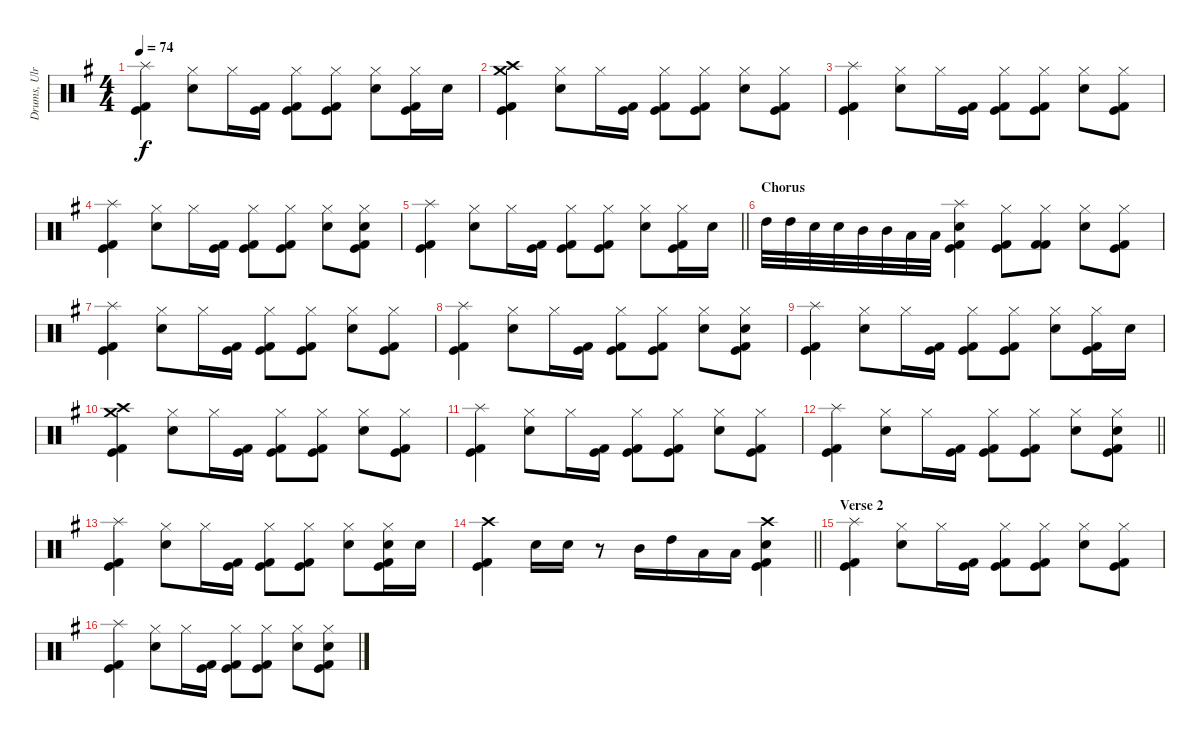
\track ("Drums, Ulrich" "Drums, Ulr") {instrument percussion}
\staff {score}
\articulation defaults
\ts (4 4)
\tempo 74
\clef neutral
\ks g
("Splash (hit)" "Kick (hit) 2" "Kick (hit)").4{dy f} ("Hi-Hat (closed)" "Electric Snare (hit)").8 "Hi-Hat (closed)".16 ("Kick (hit) 2" "Kick (hit)").16 ("Hi-Hat (closed)" "Kick (hit) 2" "Kick (hit)").8 ("Hi-Hat (closed)" "Kick (hit)" "Kick (hit) 2").8 ("Hi-Hat (closed)" "Electric Snare (hit)").8 ("Hi-Hat (closed)" "Kick (hit) 2" "Kick (hit)").16 "Electric Snare (hit)".16 |
("Crash medium (hit)" "Crash high (hit)" "Kick (hit) 2" "Kick (hit)").4 ("Hi-Hat (closed)" "Electric Snare (hit)").8 "Hi-Hat (closed)".16 ("Kick (hit) 2" "Kick (hit)").16 ("Hi-Hat (closed)" "Kick (hit) 2" "Kick (hit)").8 ("Hi-Hat (closed)" "Kick (hit)" "Kick (hit) 2").8 ("Hi-Hat (closed)" "Electric Snare (hit)").8 ("Hi-Hat (closed)" "Kick (hit) 2" "Kick (hit)").8 |
("Splash (hit)" "Kick (hit) 2" "Kick (hit)").4 ("Hi-Hat (closed)" "Electric Snare (hit)").8 "Hi-Hat (closed)".16 ("Kick (hit) 2" "Kick (hit)").16 ("Hi-Hat (closed)" "Kick (hit) 2" "Kick (hit)").8 ("Hi-Hat (closed)" "Kick (hit)" "Kick (hit) 2").8 ("Hi-Hat (closed)" "Electric Snare (hit)").8 ("Hi-Hat (closed)" "Kick (hit) 2" "Kick (hit)").8 |
("Splash (hit)" "Kick (hit) 2" "Kick (hit)").4 ("Hi-Hat (closed)" "Electric Snare (hit)").8 "Hi-Hat (closed)".16 ("Kick (hit) 2" "Kick (hit)").16 ("Hi-Hat (closed)" "Kick (hit) 2" "Kick (hit)").8 ("Hi-Hat (closed)" "Kick (hit)" "Kick (hit) 2").8 ("Hi-Hat (closed)" "Electric Snare (hit)").8 ("Hi-Hat (closed)" "Electric Snare (hit)" "Kick (hit) 2" "Kick (hit)").8 |
\barLineRight lightlight
("Splash (hit)" "Kick (hit) 2" "Kick (hit)").4 ("Hi-Hat (closed)" "Electric Snare (hit)").8 "Hi-Hat (closed)".16 ("Kick (hit) 2" "Kick (hit)").16 ("Hi-Hat (closed)" "Kick (hit) 2" "Kick (hit)").8 ("Hi-Hat (closed)" "Kick (hit)" "Kick (hit) 2").8 ("Hi-Hat (closed)" "Electric Snare (hit)").8 ("Hi-Hat (closed)" "Kick (hit) 2" "Kick (hit)").16 "Electric Snare (hit)".16 |
\section ("" "Chorus")
"High Tom (hit)".32 "High Tom (hit)".32 "Electric Snare (hit)".32 "Electric Snare (hit)".32 "Mid Tom (hit)".32 "Mid Tom (hit)".32 "Low Floor Tom (hit)".32 "Low Floor Tom (hit)".32 ("Splash (hit)" "Electric Snare (hit)" "Kick (hit) 2" "Kick (hit)").4 ("Hi-Hat (closed)" "Kick (hit) 2" "Kick (hit)").8 ("Hi-Hat (closed)" "Kick (hit) 2" "Kick (hit) 2").8 ("Hi-Hat (closed)" "Electric Snare (hit)").8 ("Hi-Hat (closed)" "Kick (hit) 2" "Kick (hit)").8 |
("Splash (hit)" "Kick (hit) 2" "Kick (hit)").4 ("Hi-Hat (closed)" "Electric Snare (hit)").8 "Hi-Hat (closed)".16 ("Kick (hit) 2" "Kick (hit)").16 ("Hi-Hat (closed)" "Kick (hit) 2" "Kick (hit)").8 ("Hi-Hat (closed)" "Kick (hit)" "Kick (hit) 2").8 ("Hi-Hat (closed)" "Electric Snare (hit)").8 ("Hi-Hat (closed)" "Kick (hit) 2" "Kick (hit)").8 |
("Splash (hit)" "Kick (hit) 2" "Kick (hit)").4 ("Hi-Hat (closed)" "Electric Snare (hit)").8 "Hi-Hat (closed)".16 ("Kick (hit) 2" "Kick (hit)").16 ("Hi-Hat (closed)" "Kick (hit) 2" "Kick (hit)").8 ("Hi-Hat (closed)" "Kick (hit)" "Kick (hit) 2").8 ("Hi-Hat (closed)" "Electric Snare (hit)").8 ("Hi-Hat (closed)" "Electric Snare (hit)" "Kick (hit) 2" "Kick (hit)").8 |
("Splash (hit)" "Kick (hit) 2" "Kick (hit)").4 ("Hi-Hat (closed)" "Electric Snare (hit)").8 "Hi-Hat (closed)".16 ("Kick (hit) 2" "Kick (hit)").16 ("Hi-Hat (closed)" "Kick (hit) 2" "Kick (hit)").8 ("Hi-Hat (closed)" "Kick (hit)" "Kick (hit) 2").8 ("Hi-Hat (closed)" "Electric Snare (hit)").8 ("Hi-Hat (closed)" "Kick (hit) 2" "Kick (hit)").16 "Electric Snare (hit)".16 |
("Crash medium (hit)" "Crash high (hit)" "Kick (hit) 2" "Kick (hit)").4 ("Hi-Hat (closed)" "Electric Snare (hit)").8 "Hi-Hat (closed)".16 ("Kick (hit) 2" "Kick (hit)").16 ("Hi-Hat (closed)" "Kick (hit) 2" "Kick (hit)").8 ("Hi-Hat (closed)" "Kick (hit)" "Kick (hit) 2").8 ("Hi-Hat (closed)" "Electric Snare (hit)").8 ("Hi-Hat (closed)" "Kick (hit) 2" "Kick (hit)").8 |
("Splash (hit)" "Kick (hit) 2" "Kick (hit)").4 ("Hi-Hat (closed)" "Electric Snare (hit)").8 "Hi-Hat (closed)".16 ("Kick (hit) 2" "Kick (hit)").16 ("Hi-Hat (closed)" "Kick (hit) 2" "Kick (hit)").8 ("Hi-Hat (closed)" "Kick (hit)" "Kick (hit) 2").8 ("Hi-Hat (closed)" "Electric Snare (hit)").8 ("Hi-Hat (closed)" "Kick (hit) 2" "Kick (hit)").8 |
\barLineRight lightlight
("Splash (hit)" "Kick (hit) 2" "Kick (hit)").4 ("Hi-Hat (closed)" "Electric Snare (hit)").8 "Hi-Hat (closed)".16 ("Kick (hit) 2" "Kick (hit)").16 ("Hi-Hat (closed)" "Kick (hit) 2" "Kick (hit)").8 ("Hi-Hat (closed)" "Kick (hit)" "Kick (hit) 2").8 ("Hi-Hat (closed)" "Electric Snare (hit)").8 ("Hi-Hat (closed)" "Electric Snare (hit)" "Kick (hit) 2" "Kick (hit)").8 |
("Splash (hit)" "Kick (hit) 2" "Kick (hit)").4 ("Hi-Hat (closed)" "Electric Snare (hit)").8 "Hi-Hat (closed)".16 ("Kick (hit) 2" "Kick (hit)").16 ("Hi-Hat (closed)" "Kick (hit) 2" "Kick (hit)").8 ("Hi-Hat (closed)" "Kick (hit)" "Kick (hit) 2").8 ("Hi-Hat (closed)" "Electric Snare (hit)").8 ("Hi-Hat (closed)" "Electric Snare (hit)" "Kick (hit) 2" "Kick (hit)").16 "Electric Snare (hit)".16 |
\barLineRight lightlight
("Crash high (hit)" "Kick (hit) 2" "Kick (hit)").4 "Electric Snare (hit)".16 "Electric Snare (hit)".16 r.8 "Mid Tom (hit)".16 "High Tom (hit)".16 "Low Floor Tom (hit)".16 "Low Floor Tom (hit)".16 ("Crash high (hit)" "Kick (hit) 2" "Kick (hit)" "Electric Snare (hit)").4 |
\section ("" "Verse 2")
("Splash (hit)" "Kick (hit) 2" "Kick (hit)").4 ("Hi-Hat (closed)" "Electric Snare (hit)").8 "Hi-Hat (closed)".16 ("Kick (hit) 2" "Kick (hit)").16 ("Hi-Hat (closed)" "Kick (hit) 2" "Kick (hit)").8 ("Hi-Hat (closed)" "Kick (hit)" "Kick (hit) 2").8 ("Hi-Hat (closed)" "Electric Snare (hit)").8 ("Hi-Hat (closed)" "Kick (hit) 2" "Kick (hit)").8 |
("Splash (hit)" "Kick (hit) 2" "Kick (hit)").4 ("Hi-Hat (closed)" "Electric Snare (hit)").8 "Hi-Hat (closed)".16 ("Kick (hit) 2" "Kick (hit)").16 ("Hi-Hat (closed)" "Kick (hit) 2" "Kick (hit)").8 ("Hi-Hat (closed)" "Kick (hit)" "Kick (hit) 2").8 ("Hi-Hat (closed)" "Electric Snare (hit)").8 ("Hi-Hat (closed)" "Electric Snare (hit)" "Kick (hit) 2" "Kick (hit)").8
